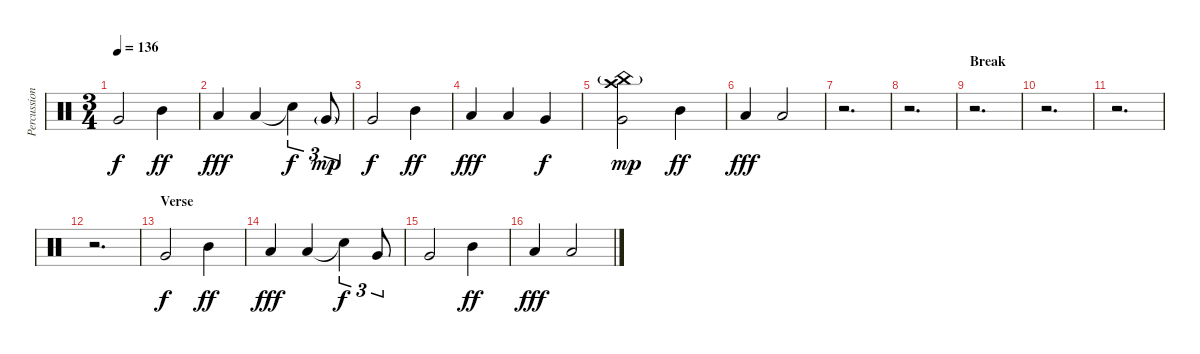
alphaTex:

\track ("Percussions / Stephen Van Haestregt" "Percussion") {instrument percussion}
\staff {score}
\articulation defaults
\ts (3 4)
\tempo 136
\clef neutral
\ks c "Very Low Tom (hit)".2{dy f} "Mid Tom (hit)".4{dy ff}
|
"Low Tom (hit)".4{dy fff} "Low Tom (hit)".4 "Snare (hit)"{t}.4{tu (3 2) dy f} "Very Low Tom (hit)"{g}.8{tu (3 2) dy mp} |
"Very Low Tom (hit)".2{dy f} "Mid Tom (hit)".4{dy ff} |
"Low Tom (hit)".4{dy fff} "Low Tom (hit)".4 "Very Low Tom (hit)".4{dy f} |
("Crash high (hit)" "China (hit)"{g} "Very Low Tom (hit)").2{dy mp} "Mid Tom (hit)".4{dy ff} |
"Low Tom (hit)".4{dy fff} "Low Tom (hit)".2 |
r.2{d} |
r.2{d} |
\section ("" "Break")
r.2{d} |
r.2{d} |
r.2{d} |
r.2{d} |
\section ("" "Verse")
"Very Low Tom (hit)".2{dy f} "Mid Tom (hit)".4{dy ff} |
"Low Tom (hit)".4{dy fff} "Low Tom (hit)".4 "Snare (hit)"{t}.4{tu (3 2) dy f} "Very Low Tom (hit)".8{tu (3 2)} |
"Very Low Tom (hit)".2 "Mid Tom (hit)".4{dy ff} |
"Low Tom (hit)".4{dy fff} "Low Tom (hit)".2
